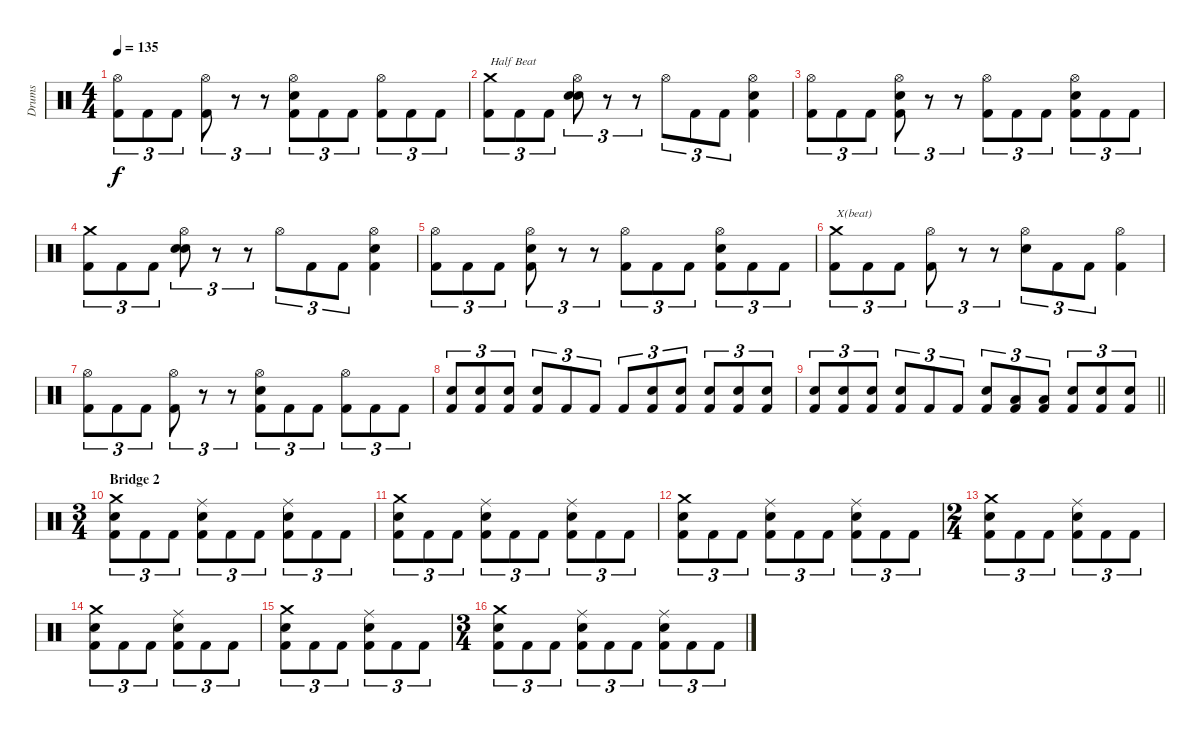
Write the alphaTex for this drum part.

\track ("Drums" "Drums") {instrument percussion}
\staff {score}
\articulation defaults
\ts (4 4)
\tempo 135
\clef neutral
\ks c
("Hi-Hat (open)" "Kick (hit) 2").8{tu (3 2) dy f} "Kick (hit) 2".8{tu (3 2)} "Kick (hit) 2".8{tu (3 2)} ("Hi-Hat (open)" "Kick (hit) 2").8{tu (3 2)} r.8{tu (3 2)} r.8{tu (3 2)} ("Hi-Hat (open)" "Snare (hit) 2" "Kick (hit) 2").8{tu (3 2)} "Kick (hit) 2".8{tu (3 2)} "Kick (hit) 2".8{tu (3 2)} ("Hi-Hat (open)" "Kick (hit) 2").8{tu (3 2)} "Kick (hit) 2".8{tu (3 2)} "Kick (hit) 2".8{tu (3 2)} |
("Crash medium (hit)" "Kick (hit) 2").8{tu (3 2) txt "Half Beat"} "Kick (hit) 2".8{tu (3 2)} "Kick (hit) 2".8{tu (3 2)} ("Hi-Hat (open)" "Snare (hit) 2" "Snare (hit) 2").8{tu (3 2)} r.8{tu (3 2)} r.8{tu (3 2)} "Hi-Hat (open)".8{tu (3 2)} "Kick (hit) 2".8{tu (3 2)} "Kick (hit) 2".8{tu (3 2)} ("Hi-Hat (open)" "Snare (hit) 2" "Kick (hit) 2").4 |
("Hi-Hat (open)" "Kick (hit) 2").8{tu (3 2)} "Kick (hit) 2".8{tu (3 2)} "Kick (hit) 2".8{tu (3 2)} ("Hi-Hat (open)" "Snare (hit) 2" "Kick (hit) 2").8{tu (3 2)} r.8{tu (3 2)} r.8{tu (3 2)} ("Hi-Hat (open)" "Kick (hit) 2").8{tu (3 2)} "Kick (hit) 2".8{tu (3 2)} "Kick (hit) 2".8{tu (3 2)} ("Hi-Hat (open)" "Snare (hit) 2" "Kick (hit) 2").8{tu (3 2)} "Kick (hit) 2".8{tu (3 2)} "Kick (hit) 2".8{tu (3 2)} |
("Crash medium (hit)" "Kick (hit) 2").8{tu (3 2)} "Kick (hit) 2".8{tu (3 2)} "Kick (hit) 2".8{tu (3 2)} ("Hi-Hat (open)" "Snare (hit) 2" "Snare (hit) 2").8{tu (3 2)} r.8{tu (3 2)} r.8{tu (3 2)} "Hi-Hat (open)".8{tu (3 2)} "Kick (hit) 2".8{tu (3 2)} "Kick (hit) 2".8{tu (3 2)} ("Hi-Hat (open)" "Snare (hit) 2" "Kick (hit) 2").4 |
("Hi-Hat (open)" "Kick (hit) 2").8{tu (3 2)} "Kick (hit) 2".8{tu (3 2)} "Kick (hit) 2".8{tu (3 2)} ("Hi-Hat (open)" "Snare (hit) 2" "Kick (hit) 2").8{tu (3 2)} r.8{tu (3 2)} r.8{tu (3 2)} ("Hi-Hat (open)" "Kick (hit) 2").8{tu (3 2)} "Kick (hit) 2".8{tu (3 2)} "Kick (hit) 2".8{tu (3 2)} ("Hi-Hat (open)" "Snare (hit) 2" "Kick (hit) 2").8{tu (3 2)} "Kick (hit) 2".8{tu (3 2)} "Kick (hit) 2".8{tu (3 2)} |
("Crash medium (hit)" "Kick (hit) 2").8{tu (3 2) txt "X(beat)"} "Kick (hit) 2".8{tu (3 2)} "Kick (hit) 2".8{tu (3 2)} ("Hi-Hat (open)" "Kick (hit) 2").8{tu (3 2)} r.8{tu (3 2)} r.8{tu (3 2)} ("Hi-Hat (open)" "Snare (hit) 2").8{tu (3 2)} "Kick (hit) 2".8{tu (3 2)} "Kick (hit) 2".8{tu (3 2)} ("Hi-Hat (open)" "Kick (hit) 2").4 |
("Hi-Hat (open)" "Kick (hit) 2").8{tu (3 2)} "Kick (hit) 2".8{tu (3 2)} "Kick (hit) 2".8{tu (3 2)} ("Hi-Hat (open)" "Kick (hit) 2").8{tu (3 2)} r.8{tu (3 2)} r.8{tu (3 2)} ("Hi-Hat (open)" "Snare (hit) 2" "Kick (hit) 2").8{tu (3 2)} "Kick (hit) 2".8{tu (3 2)} "Kick (hit) 2".8{tu (3 2)} ("Hi-Hat (open)" "Kick (hit) 2").8{tu (3 2)} "Kick (hit) 2".8{tu (3 2)} "Kick (hit) 2".8{tu (3 2)} |
("Snare (hit) 2" "Kick (hit) 2").8{tu (3 2)} ("Snare (hit) 2" "Kick (hit) 2").8{tu (3 2)} ("Snare (hit) 2" "Kick (hit) 2").8{tu (3 2)} ("Snare (hit) 2" "Kick (hit) 2").8{tu (3 2)} "Kick (hit) 2".8{tu (3 2)} "Kick (hit) 2".8{tu (3 2)} "Kick (hit) 2".8{tu (3 2)} ("Snare (hit) 2" "Kick (hit) 2").8{tu (3 2)} ("Snare (hit) 2" "Kick (hit) 2").8{tu (3 2)} ("Snare (hit) 2" "Kick (hit) 2").8{tu (3 2)} ("Snare (hit) 2" "Kick (hit) 2").8{tu (3 2)} ("Snare (hit) 2" "Kick (hit) 2").8{tu (3 2)} |
\barLineRight lightlight
("Snare (hit) 2" "Kick (hit) 2").8{tu (3 2)} ("Snare (hit) 2" "Kick (hit) 2").8{tu (3 2)} ("Snare (hit) 2" "Kick (hit) 2").8{tu (3 2)} ("Snare (hit) 2" "Kick (hit) 2").8{tu (3 2)} "Kick (hit) 2".8{tu (3 2)} "Kick (hit) 2".8{tu (3 2)} ("Snare (hit) 2" "Kick (hit) 2").8{tu (3 2)} ("Low Tom (hit)" "Kick (hit) 2").8{tu (3 2)} ("Low Tom (hit)" "Kick (hit) 2").8{tu (3 2)} ("Snare (hit) 2" "Kick (hit) 2").8{tu (3 2)} ("Snare (hit) 2" "Kick (hit) 2").8{tu (3 2)} ("Snare (hit) 2" "Kick (hit) 2").8{tu (3 2)} |
\ts (3 4)
\section ("" "Bridge 2")
("Crash medium (hit)" "Snare (hit) 2" "Kick (hit) 2").8{tu (3 2)} "Kick (hit) 2".8{tu (3 2)} "Kick (hit) 2".8{tu (3 2)} ("Ride (middle)" "Snare (hit) 2" "Kick (hit) 2").8{tu (3 2)} "Kick (hit) 2".8{tu (3 2)} "Kick (hit) 2".8{tu (3 2)} ("Ride (middle)" "Snare (hit) 2" "Kick (hit) 2").8{tu (3 2)} "Kick (hit) 2".8{tu (3 2)} "Kick (hit) 2".8{tu (3 2)} |
("Crash medium (hit)" "Snare (hit) 2" "Kick (hit) 2").8{tu (3 2)} "Kick (hit) 2".8{tu (3 2)} "Kick (hit) 2".8{tu (3 2)} ("Ride (middle)" "Snare (hit) 2" "Kick (hit) 2").8{tu (3 2)} "Kick (hit) 2".8{tu (3 2)} "Kick (hit) 2".8{tu (3 2)} ("Ride (middle)" "Snare (hit) 2" "Kick (hit) 2").8{tu (3 2)} "Kick (hit) 2".8{tu (3 2)} "Kick (hit) 2".8{tu (3 2)} |
("Crash medium (hit)" "Snare (hit) 2" "Kick (hit) 2").8{tu (3 2)} "Kick (hit) 2".8{tu (3 2)} "Kick (hit) 2".8{tu (3 2)} ("Ride (middle)" "Snare (hit) 2" "Kick (hit) 2").8{tu (3 2)} "Kick (hit) 2".8{tu (3 2)} "Kick (hit) 2".8{tu (3 2)} ("Ride (middle)" "Snare (hit) 2" "Kick (hit) 2").8{tu (3 2)} "Kick (hit) 2".8{tu (3 2)} "Kick (hit) 2".8{tu (3 2)} |
\ts (2 4)
("Crash medium (hit)" "Snare (hit) 2" "Kick (hit) 2").8{tu (3 2)} "Kick (hit) 2".8{tu (3 2)} "Kick (hit) 2".8{tu (3 2)} ("Ride (middle)" "Snare (hit) 2" "Kick (hit) 2").8{tu (3 2)} "Kick (hit) 2".8{tu (3 2)} "Kick (hit) 2".8{tu (3 2)} |
("Crash medium (hit)" "Snare (hit) 2" "Kick (hit) 2").8{tu (3 2)} "Kick (hit) 2".8{tu (3 2)} "Kick (hit) 2".8{tu (3 2)} ("Ride (middle)" "Snare (hit) 2" "Kick (hit) 2").8{tu (3 2)} "Kick (hit) 2".8{tu (3 2)} "Kick (hit) 2".8{tu (3 2)} |
("Crash medium (hit)" "Snare (hit) 2" "Kick (hit) 2").8{tu (3 2)} "Kick (hit) 2".8{tu (3 2)} "Kick (hit) 2".8{tu (3 2)} ("Ride (middle)" "Snare (hit) 2" "Kick (hit) 2").8{tu (3 2)} "Kick (hit) 2".8{tu (3 2)} "Kick (hit) 2".8{tu (3 2)} |
\ts (3 4)
("Crash medium (hit)" "Snare (hit) 2" "Kick (hit) 2").8{tu (3 2)} "Kick (hit) 2".8{tu (3 2)} "Kick (hit) 2".8{tu (3 2)} ("Ride (middle)" "Snare (hit) 2" "Kick (hit) 2").8{tu (3 2)} "Kick (hit) 2".8{tu (3 2)} "Kick (hit) 2".8{tu (3 2)} ("Ride (middle)" "Snare (hit) 2" "Kick (hit) 2").8{tu (3 2)} "Kick (hit) 2".8{tu (3 2)} "Kick (hit) 2".8{tu (3 2)}
